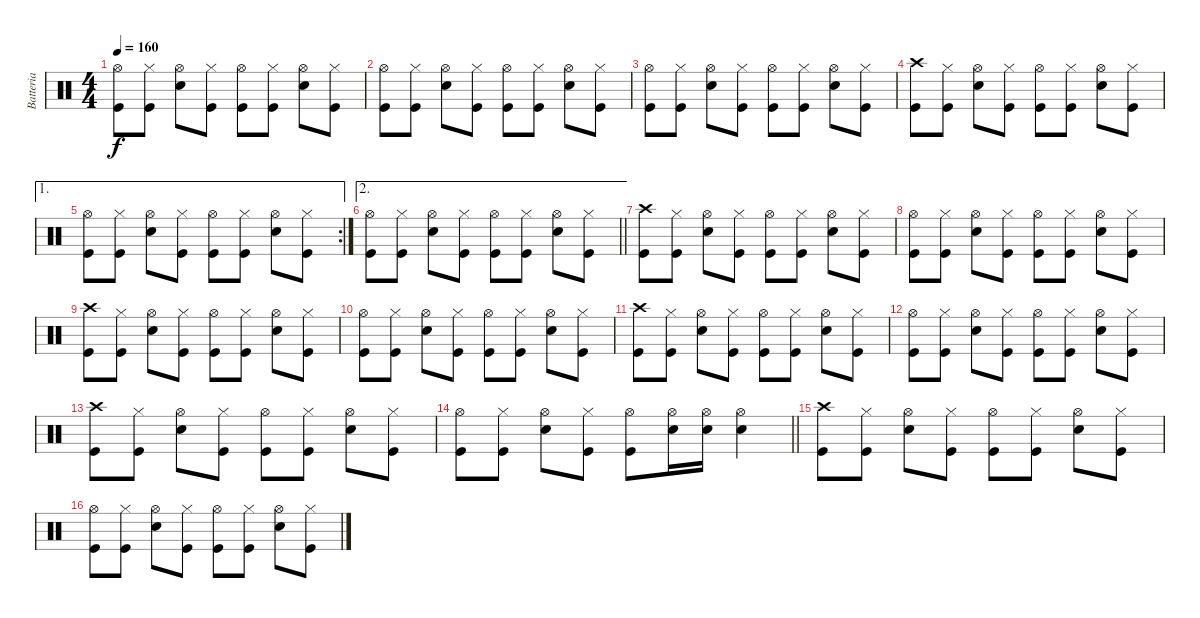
\track ("Batteria" "Batteria") {instrument percussion}
\staff {score}
\articulation defaults
\ts (4 4)
\tempo 160
\clef neutral
\ks c
("Kick (hit)" "Hi-Hat (open)").8{dy f} ("Kick (hit)" "Hi-Hat (closed)").8 ("Snare (hit) 2" "Hi-Hat (open)").8 ("Kick (hit)" "Hi-Hat (closed)").8 ("Kick (hit)" "Hi-Hat (open)").8 ("Kick (hit)" "Hi-Hat (closed)").8 ("Snare (hit) 2" "Hi-Hat (open)").8 ("Kick (hit)" "Hi-Hat (closed)").8 |
("Kick (hit)" "Hi-Hat (open)").8 ("Kick (hit)" "Hi-Hat (closed)").8 ("Snare (hit) 2" "Hi-Hat (open)").8 ("Kick (hit)" "Hi-Hat (closed)").8 ("Kick (hit)" "Hi-Hat (open)").8 ("Kick (hit)" "Hi-Hat (closed)").8 ("Snare (hit) 2" "Hi-Hat (open)").8 ("Kick (hit)" "Hi-Hat (closed)").8 |
("Kick (hit)" "Hi-Hat (open)").8 ("Kick (hit)" "Hi-Hat (closed)").8 ("Snare (hit) 2" "Hi-Hat (open)").8 ("Kick (hit)" "Hi-Hat (closed)").8 ("Kick (hit)" "Hi-Hat (open)").8 ("Kick (hit)" "Hi-Hat (closed)").8 ("Snare (hit) 2" "Hi-Hat (open)").8 ("Kick (hit)" "Hi-Hat (closed)").8 |
("Kick (hit)" "Crash high (hit)").8 ("Kick (hit)" "Hi-Hat (closed)").8 ("Snare (hit) 2" "Hi-Hat (open)").8 ("Kick (hit)" "Hi-Hat (closed)").8 ("Kick (hit)" "Hi-Hat (open)").8 ("Kick (hit)" "Hi-Hat (closed)").8 ("Snare (hit) 2" "Hi-Hat (open)").8 ("Kick (hit)" "Hi-Hat (closed)").8 |
\ae 1
\rc 2
("Kick (hit)" "Hi-Hat (open)").8 ("Kick (hit)" "Hi-Hat (closed)").8 ("Snare (hit) 2" "Hi-Hat (open)").8 ("Kick (hit)" "Hi-Hat (closed)").8 ("Kick (hit)" "Hi-Hat (open)").8 ("Kick (hit)" "Hi-Hat (closed)").8 ("Snare (hit) 2" "Hi-Hat (open)").8 ("Kick (hit)" "Hi-Hat (closed)").8 |
\ae 2
\barLineRight lightlight
("Kick (hit)" "Hi-Hat (open)").8 ("Kick (hit)" "Hi-Hat (closed)").8 ("Snare (hit) 2" "Hi-Hat (open)").8 ("Kick (hit)" "Hi-Hat (closed)").8 ("Kick (hit)" "Hi-Hat (open)").8 ("Kick (hit)" "Hi-Hat (closed)").8 ("Snare (hit) 2" "Hi-Hat (open)").8 ("Kick (hit)" "Hi-Hat (closed)").8 |
("Kick (hit)" "Crash high (hit)").8 ("Kick (hit)" "Hi-Hat (closed)").8 ("Snare (hit) 2" "Hi-Hat (open)").8 ("Kick (hit)" "Hi-Hat (closed)").8 ("Kick (hit)" "Hi-Hat (open)").8 ("Kick (hit)" "Hi-Hat (closed)").8 ("Snare (hit) 2" "Hi-Hat (open)").8 ("Kick (hit)" "Hi-Hat (closed)").8 |
("Kick (hit)" "Hi-Hat (open)").8 ("Kick (hit)" "Hi-Hat (closed)").8 ("Snare (hit) 2" "Hi-Hat (open)").8 ("Kick (hit)" "Hi-Hat (closed)").8 ("Kick (hit)" "Hi-Hat (open)").8 ("Kick (hit)" "Hi-Hat (closed)").8 ("Snare (hit) 2" "Hi-Hat (open)").8 ("Kick (hit)" "Hi-Hat (closed)").8 |
("Kick (hit)" "Crash high (hit)").8 ("Kick (hit)" "Hi-Hat (closed)").8 ("Snare (hit) 2" "Hi-Hat (open)").8 ("Kick (hit)" "Hi-Hat (closed)").8 ("Kick (hit)" "Hi-Hat (open)").8 ("Kick (hit)" "Hi-Hat (closed)").8 ("Snare (hit) 2" "Hi-Hat (open)").8 ("Kick (hit)" "Hi-Hat (closed)").8 |
("Kick (hit)" "Hi-Hat (open)").8 ("Kick (hit)" "Hi-Hat (closed)").8 ("Snare (hit) 2" "Hi-Hat (open)").8 ("Kick (hit)" "Hi-Hat (closed)").8 ("Kick (hit)" "Hi-Hat (open)").8 ("Kick (hit)" "Hi-Hat (closed)").8 ("Snare (hit) 2" "Hi-Hat (open)").8 ("Kick (hit)" "Hi-Hat (closed)").8 |
("Kick (hit)" "Crash high (hit)").8 ("Kick (hit)" "Hi-Hat (closed)").8 ("Snare (hit) 2" "Hi-Hat (open)").8 ("Kick (hit)" "Hi-Hat (closed)").8 ("Kick (hit)" "Hi-Hat (open)").8 ("Kick (hit)" "Hi-Hat (closed)").8 ("Snare (hit) 2" "Hi-Hat (open)").8 ("Kick (hit)" "Hi-Hat (closed)").8 |
("Kick (hit)" "Hi-Hat (open)").8 ("Kick (hit)" "Hi-Hat (closed)").8 ("Snare (hit) 2" "Hi-Hat (open)").8 ("Kick (hit)" "Hi-Hat (closed)").8 ("Kick (hit)" "Hi-Hat (open)").8 ("Kick (hit)" "Hi-Hat (closed)").8 ("Snare (hit) 2" "Hi-Hat (open)").8 ("Kick (hit)" "Hi-Hat (closed)").8 |
("Kick (hit)" "Crash high (hit)").8 ("Kick (hit)" "Hi-Hat (closed)").8 ("Snare (hit) 2" "Hi-Hat (open)").8 ("Kick (hit)" "Hi-Hat (closed)").8 ("Kick (hit)" "Hi-Hat (open)").8 ("Kick (hit)" "Hi-Hat (closed)").8 ("Snare (hit) 2" "Hi-Hat (open)").8 ("Kick (hit)" "Hi-Hat (closed)").8 |
\barLineRight lightlight
("Kick (hit)" "Hi-Hat (open)").8 ("Kick (hit)" "Hi-Hat (closed)").8 ("Snare (hit) 2" "Hi-Hat (open)").8 ("Kick (hit)" "Hi-Hat (closed)").8 ("Kick (hit)" "Hi-Hat (open)").8 ("Snare (hit) 2" "Hi-Hat (open)").16 ("Snare (hit) 2" "Hi-Hat (open)").16 ("Snare (hit) 2" "Hi-Hat (open)").4 |
("Kick (hit)" "Crash high (hit)").8 ("Kick (hit)" "Hi-Hat (closed)").8 ("Snare (hit) 2" "Hi-Hat (open)").8 ("Kick (hit)" "Hi-Hat (closed)").8 ("Kick (hit)" "Hi-Hat (open)").8 ("Kick (hit)" "Hi-Hat (closed)").8 ("Snare (hit) 2" "Hi-Hat (open)").8 ("Kick (hit)" "Hi-Hat (closed)").8 |
("Kick (hit)" "Hi-Hat (open)").8 ("Kick (hit)" "Hi-Hat (closed)").8 ("Snare (hit) 2" "Hi-Hat (open)").8 ("Kick (hit)" "Hi-Hat (closed)").8 ("Kick (hit)" "Hi-Hat (open)").8 ("Kick (hit)" "Hi-Hat (closed)").8 ("Snare (hit) 2" "Hi-Hat (open)").8 ("Kick (hit)" "Hi-Hat (closed)").8
